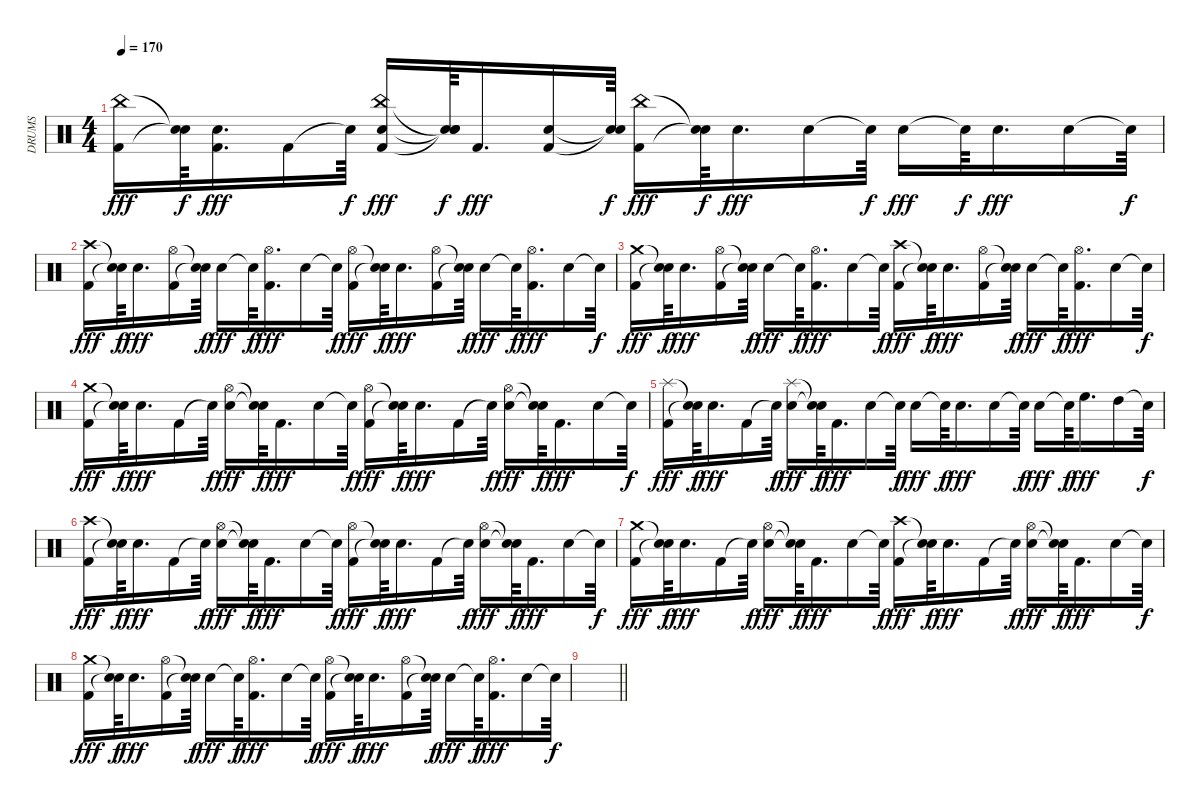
\track ("DRUMS" "DRUMS") {instrument percussion}
\staff {score}
\articulation defaults
\ts (4 4)
\tempo 170
\clef neutral
\ks c
("Kick (hit) 2" "China (hit)").16{dy fff} ("Snare (hit)"{t} "Snare (hit)"{t}).64{dy f} ("Kick (hit) 2" "Snare (hit) 2").16{d dy fff} "Kick (hit) 2".16 "Snare (hit)"{t}.64{dy f} ("Kick (hit) 2" "Snare (hit) 2" "China (hit)").16{dy fff} ("Snare (hit)"{t} "Snare (hit)"{t} "Snare (hit)"{t}).64{dy f} "Kick (hit) 2".16{d dy fff} ("Kick (hit) 2" "Snare (hit) 2").16 ("Snare (hit)"{t} "Snare (hit)"{t}).64{dy f} ("Kick (hit) 2" "China (hit)").16{dy fff} ("Snare (hit)"{t} "Snare (hit)"{t}).64{dy f} "Snare (hit) 2".16{d dy fff} "Snare (hit) 2".16 "Snare (hit)"{t}.64{dy f} "Snare (hit) 2".16{dy fff} "Snare (hit)"{t}.64{dy f} "Snare (hit) 2".16{d dy fff} "Snare (hit) 2".16 "Snare (hit)"{t}.64{dy f} |
("Kick (hit) 2" "Crash high (hit)").16{dy fff} ("Snare (hit)"{t} "Snare (hit)"{t}).64{dy f} "Snare (hit) 2".16{d dy fff} ("Kick (hit) 2" "Hi-Hat (open)").16 ("Snare (hit)"{t} "Snare (hit)"{t}).64{dy f} "Snare (hit) 2".16{dy fff} "Snare (hit)"{t}.64{dy f} ("Kick (hit) 2" "Hi-Hat (open)").16{d dy fff} "Snare (hit) 2".16 "Snare (hit)"{t}.64{dy f} ("Kick (hit) 2" "Hi-Hat (open)").16{dy fff} ("Snare (hit)"{t} "Snare (hit)"{t}).64{dy f} "Snare (hit) 2".16{d dy fff} ("Kick (hit) 2" "Hi-Hat (open)").16 ("Snare (hit)"{t} "Snare (hit)"{t}).64{dy f} "Snare (hit) 2".16{dy fff} "Snare (hit)"{t}.64{dy f} ("Kick (hit) 2" "Hi-Hat (open)").16{d dy fff} "Snare (hit) 2".16 "Snare (hit)"{t}.64{dy f} |
("Kick (hit) 2" "Crash medium (hit)").16{dy fff} ("Snare (hit)"{t} "Snare (hit)"{t}).64{dy f} "Snare (hit) 2".16{d dy fff} ("Kick (hit) 2" "Hi-Hat (open)").16 ("Snare (hit)"{t} "Snare (hit)"{t}).64{dy f} "Snare (hit) 2".16{dy fff} "Snare (hit)"{t}.64{dy f} ("Kick (hit) 2" "Hi-Hat (open)").16{d dy fff} "Snare (hit) 2".16 "Snare (hit)"{t}.64{dy f} ("Kick (hit) 2" "Crash high (hit)").16{dy fff} ("Snare (hit)"{t} "Snare (hit)"{t}).64{dy f} "Snare (hit) 2".16{d dy fff} ("Kick (hit) 2" "Hi-Hat (open)").16 ("Snare (hit)"{t} "Snare (hit)"{t}).64{dy f} "Snare (hit) 2".16{dy fff} "Snare (hit)"{t}.64{dy f} ("Kick (hit) 2" "Hi-Hat (open)").16{d dy fff} "Snare (hit) 2".16 "Snare (hit)"{t}.64{dy f} |
("Kick (hit) 2" "Crash medium (hit)").16{dy fff} ("Snare (hit)"{t} "Snare (hit)"{t}).64{dy f} "Snare (hit) 2".16{d dy fff} "Kick (hit) 2".16 "Snare (hit)"{t}.64{dy f} ("Snare (hit) 2" "Hi-Hat (open)").16{dy fff} ("Snare (hit)"{t} "Snare (hit)"{t}).64{dy f} "Kick (hit) 2".16{d dy fff} "Snare (hit) 2".16 "Snare (hit)"{t}.64{dy f} ("Kick (hit) 2" "Hi-Hat (open)").16{dy fff} ("Snare (hit)"{t} "Snare (hit)"{t}).64{dy f} "Snare (hit) 2".16{d dy fff} "Kick (hit) 2".16 "Snare (hit)"{t}.64{dy f} ("Snare (hit) 2" "Hi-Hat (open)").16{dy fff} ("Snare (hit)"{t} "Snare (hit)"{t}).64{dy f} "Kick (hit) 2".16{d dy fff} "Snare (hit) 2".16 "Snare (hit)"{t}.64{dy f} |
("Kick (hit) 2" "Splash (hit)").16{dy fff} ("Snare (hit)"{t} "Snare (hit)"{t}).64{dy f} "Snare (hit) 2".16{d dy fff} "Kick (hit) 2".16 "Snare (hit)"{t}.64{dy f} ("Snare (hit) 2" "Splash (hit)").16{dy fff} ("Snare (hit)"{t} "Snare (hit)"{t}).64{dy f} "Kick (hit) 2".16{d dy fff} "Snare (hit) 2".16 "Snare (hit)"{t}.64{dy f} "Snare (hit) 2".16{dy fff} "Snare (hit)"{t}.64{dy f} "Snare (hit) 2".16{d dy fff} "Snare (hit) 2".16 "Snare (hit)"{t}.64{dy f} "Snare (hit) 2".16{dy fff} "Snare (hit)"{t}.64{dy f} "High Floor Tom (hit)".16{d dy fff} "High Tom (hit)".16 "Snare (hit)"{t}.64{dy f} |
("Kick (hit) 2" "Crash high (hit)").16{dy fff} ("Snare (hit)"{t} "Snare (hit)"{t}).64{dy f} "Snare (hit) 2".16{d dy fff} "Kick (hit) 2".16 "Snare (hit)"{t}.64{dy f} ("Snare (hit) 2" "Hi-Hat (open)").16{dy fff} ("Snare (hit)"{t} "Snare (hit)"{t}).64{dy f} "Kick (hit) 2".16{d dy fff} "Snare (hit) 2".16 "Snare (hit)"{t}.64{dy f} ("Kick (hit) 2" "Hi-Hat (open)").16{dy fff} ("Snare (hit)"{t} "Snare (hit)"{t}).64{dy f} "Snare (hit) 2".16{d dy fff} "Kick (hit) 2".16 "Snare (hit)"{t}.64{dy f} ("Snare (hit) 2" "Hi-Hat (open)").16{dy fff} ("Snare (hit)"{t} "Snare (hit)"{t}).64{dy f} "Kick (hit) 2".16{d dy fff} "Snare (hit) 2".16 "Snare (hit)"{t}.64{dy f} |
("Kick (hit) 2" "Crash medium (hit)").16{dy fff} ("Snare (hit)"{t} "Snare (hit)"{t}).64{dy f} "Snare (hit) 2".16{d dy fff} "Kick (hit) 2".16 "Snare (hit)"{t}.64{dy f} ("Snare (hit) 2" "Hi-Hat (open)").16{dy fff} ("Snare (hit)"{t} "Snare (hit)"{t}).64{dy f} "Kick (hit) 2".16{d dy fff} "Snare (hit) 2".16 "Snare (hit)"{t}.64{dy f} ("Kick (hit) 2" "Crash high (hit)").16{dy fff} ("Snare (hit)"{t} "Snare (hit)"{t}).64{dy f} "Snare (hit) 2".16{d dy fff} "Kick (hit) 2".16 "Snare (hit)"{t}.64{dy f} ("Snare (hit) 2" "Hi-Hat (open)").16{dy fff} ("Snare (hit)"{t} "Snare (hit)"{t}).64{dy f} "Kick (hit) 2".16{d dy fff} "Snare (hit) 2".16 "Snare (hit)"{t}.64{dy f} |
("Kick (hit) 2" "Crash medium (hit)").16{dy fff} ("Snare (hit)"{t} "Snare (hit)"{t}).64{dy f} "Snare (hit) 2".16{d dy fff} ("Kick (hit) 2" "Hi-Hat (open)").16 ("Snare (hit)"{t} "Snare (hit)"{t}).64{dy f} "Snare (hit) 2".16{dy fff} "Snare (hit)"{t}.64{dy f} ("Kick (hit) 2" "Hi-Hat (open)").16{d dy fff} "Snare (hit) 2".16 "Snare (hit)"{t}.64{dy f} ("Hi-Hat (open)" "Kick (hit) 2").16{dy fff} ("Snare (hit)"{t} "Snare (hit)"{t}).64{dy f} "Snare (hit) 2".16{d dy fff} ("Hi-Hat (open)" "Kick (hit) 2").16 ("Snare (hit)"{t} "Snare (hit)"{t}).64{dy f} "Snare (hit) 2".16{dy fff} "Snare (hit)"{t}.64{dy f} ("Hi-Hat (open)" "Kick (hit) 2").16{d dy fff} "Snare (hit) 2".16 "Snare (hit)"{t}.64{dy f} |
\barLineRight lightlight
